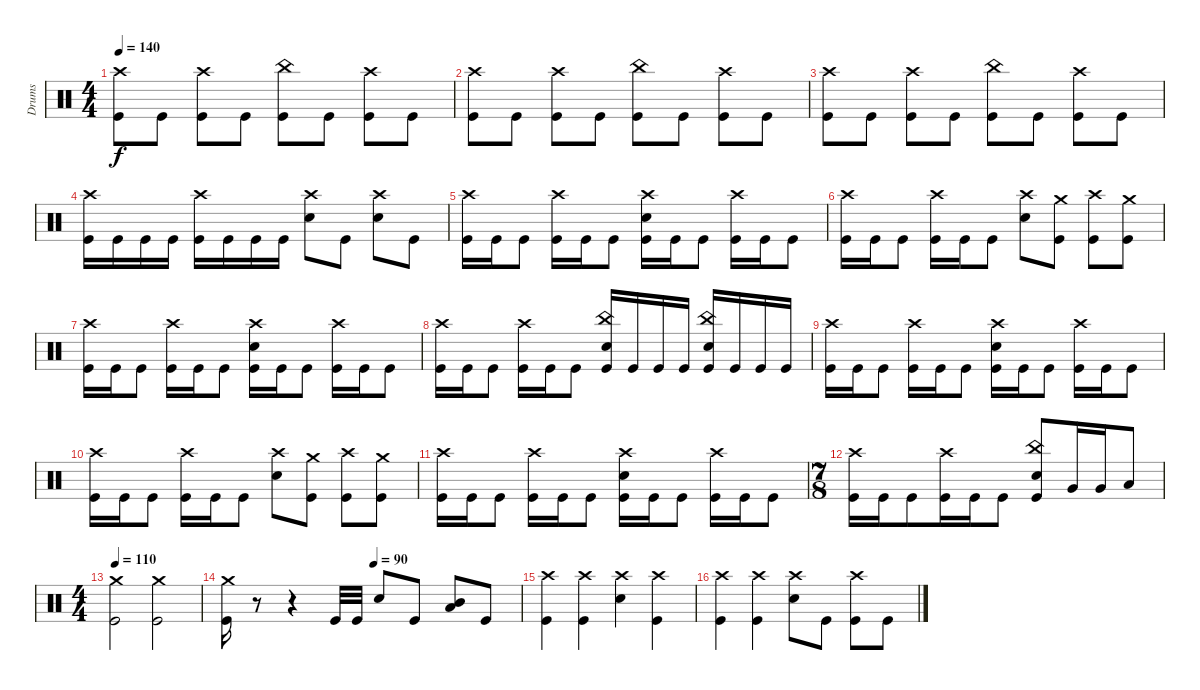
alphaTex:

\track ("Drums" "Drums") {instrument percussion}
\staff {score}
\articulation defaults
\ts (4 4)
\tempo 140
\clef neutral
\ks c
("Crash high (hit)" "Kick (hit)").8{dy f} "Kick (hit)".8 ("Crash high (hit)" "Kick (hit)").8 "Kick (hit)".8 ("China (hit)" "Kick (hit)").8 "Kick (hit)".8 ("Crash high (hit)" "Kick (hit)").8 "Kick (hit)".8 |
("Crash high (hit)" "Kick (hit)").8 "Kick (hit)".8 ("Crash high (hit)" "Kick (hit)").8 "Kick (hit)".8 ("China (hit)" "Kick (hit)").8 "Kick (hit)".8 ("Crash high (hit)" "Kick (hit)").8 "Kick (hit)".8 |
("Crash high (hit)" "Kick (hit)").8 "Kick (hit)".8 ("Crash high (hit)" "Kick (hit)").8 "Kick (hit)".8 ("China (hit)" "Kick (hit)").8 "Kick (hit)".8 ("Crash high (hit)" "Kick (hit)").8 "Kick (hit)".8 |
("Crash high (hit)" "Kick (hit)").16 "Kick (hit)".16 "Kick (hit)".16 "Kick (hit)".16 ("Crash high (hit)" "Kick (hit)").16 "Kick (hit)".16 "Kick (hit)".16 "Kick (hit)".16 ("Crash high (hit)" "Electric Snare (hit)").8 "Kick (hit)".8 ("Crash high (hit)" "Electric Snare (hit)").8 "Kick (hit)".8 |
("Crash high (hit)" "Kick (hit)").16 "Kick (hit)".16 "Kick (hit)".8 ("Crash high (hit)" "Kick (hit)").16 "Kick (hit)".16 "Kick (hit)".8 ("Crash high (hit)" "Electric Snare (hit)" "Kick (hit)").16 "Kick (hit)".16 "Kick (hit)".8 ("Crash high (hit)" "Kick (hit)").16 "Kick (hit)".16 "Kick (hit)".8 |
("Crash high (hit)" "Kick (hit)").16 "Kick (hit)".16 "Kick (hit)".8 ("Crash high (hit)" "Kick (hit)").16 "Kick (hit)".16 "Kick (hit)".8 ("Crash high (hit)" "Electric Snare (hit)").8 ("Crash medium (hit)" "Kick (hit)").8 ("Crash high (hit)" "Kick (hit)").8 ("Crash medium (hit)" "Kick (hit)").8 |
("Crash high (hit)" "Kick (hit)").16 "Kick (hit)".16 "Kick (hit)".8 ("Crash high (hit)" "Kick (hit)").16 "Kick (hit)".16 "Kick (hit)".8 ("Crash high (hit)" "Electric Snare (hit)" "Kick (hit)").16 "Kick (hit)".16 "Kick (hit)".8 ("Crash high (hit)" "Kick (hit)").16 "Kick (hit)".16 "Kick (hit)".8 |
("Crash high (hit)" "Kick (hit)").16 "Kick (hit)".16 "Kick (hit)".8 ("Crash high (hit)" "Kick (hit)").16 "Kick (hit)".16 "Kick (hit)".8 ("China (hit)" "Electric Snare (hit)" "Kick (hit)").16 "Kick (hit)".16 "Kick (hit)".16 "Kick (hit)".16 ("China (hit)" "Electric Snare (hit)" "Kick (hit)").16 "Kick (hit)".16 "Kick (hit)".16 "Kick (hit)".16 |
("Crash high (hit)" "Kick (hit)").16 "Kick (hit)".16 "Kick (hit)".8 ("Crash high (hit)" "Kick (hit)").16 "Kick (hit)".16 "Kick (hit)".8 ("Crash high (hit)" "Electric Snare (hit)" "Kick (hit)").16 "Kick (hit)".16 "Kick (hit)".8 ("Crash high (hit)" "Kick (hit)").16 "Kick (hit)".16 "Kick (hit)".8 |
("Crash high (hit)" "Kick (hit)").16 "Kick (hit)".16 "Kick (hit)".8 ("Crash high (hit)" "Kick (hit)").16 "Kick (hit)".16 "Kick (hit)".8 ("Crash high (hit)" "Electric Snare (hit)").8 ("Crash medium (hit)" "Kick (hit)").8 ("Crash high (hit)" "Kick (hit)").8 ("Crash medium (hit)" "Kick (hit)").8 |
("Crash high (hit)" "Kick (hit)").16 "Kick (hit)".16 "Kick (hit)".8 ("Crash high (hit)" "Kick (hit)").16 "Kick (hit)".16 "Kick (hit)".8 ("Crash high (hit)" "Electric Snare (hit)" "Kick (hit)").16 "Kick (hit)".16 "Kick (hit)".8 ("Crash high (hit)" "Kick (hit)").16 "Kick (hit)".16 "Kick (hit)".8 |
\ts (7 8)
("Crash high (hit)" "Kick (hit)").16 "Kick (hit)".16 "Kick (hit)".8 ("Crash high (hit)" "Kick (hit)").16 "Kick (hit)".16 "Kick (hit)".8 ("China (hit)" "Electric Snare (hit)" "Kick (hit)").8 "Very Low Tom (hit)".16 "Very Low Tom (hit)".16 "Low Floor Tom (hit)".8 |
\ts (4 4)
\tempo 110
("Crash medium (hit)" "Kick (hit)").2 ("Crash medium (hit)" "Kick (hit)").2 |
\tempo (90 0.5)
("Crash medium (hit)" "Kick (hit)").16 r.8 r.4 "Kick (hit)".32 "Kick (hit)".32 "Electric Snare (hit)".8 "Kick (hit)".8 ("Mid Tom (hit)" "Low Tom (hit)").8 "Kick (hit)".8 |
("Crash high (hit)" "Kick (hit)").4 ("Crash high (hit)" "Kick (hit)").4 ("Crash high (hit)" "Electric Snare (hit)").4 ("Crash high (hit)" "Kick (hit)").4 |
("Crash high (hit)" "Kick (hit)").4 ("Crash high (hit)" "Kick (hit)").4 ("Crash high (hit)" "Electric Snare (hit)").8 "Kick (hit)".8 ("Crash high (hit)" "Kick (hit)").8 "Kick (hit)".8
